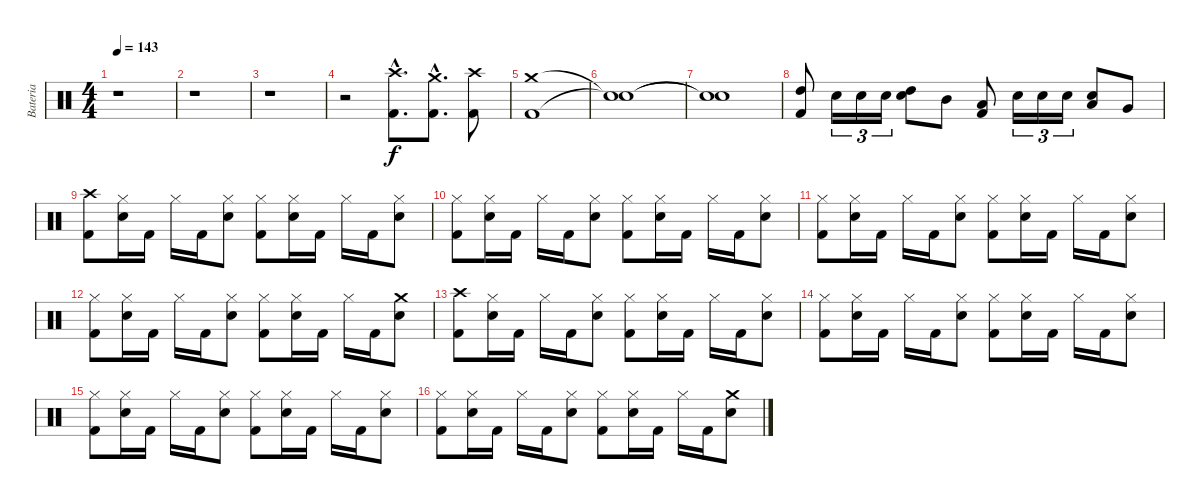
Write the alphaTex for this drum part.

\track ("Bateria" "Bateria") {instrument percussion}
\staff {score}
\articulation defaults
\ts (4 4)
\tempo 143
\clef neutral
\ks c
r.1{dy f} |
r.1 |
r.1 |
r.2 ("Crash high (hit)"{hac} "Kick (hit) 2"{hac}).8{d} ("Crash medium (hit)"{hac} "Kick (hit) 2"{hac}).8{d} ("Crash high (hit)" "Kick (hit) 2").8 |
("Crash medium (hit)" "Kick (hit) 2").1 |
("Snare (hit)"{t} "Snare (hit)"{t}).1 |
("Snare (hit)"{t} "Snare (hit)"{t}).1 |
("High Tom (hit)" "Kick (hit) 2").8 "Snare (hit) 2".16{tu (3 2)} "Snare (hit) 2".16{tu (3 2)} "Snare (hit) 2".16{tu (3 2)} ("Snare (hit) 2" "High Tom (hit)").8 "Mid Tom (hit)".8 ("Low Tom (hit)" "Kick (hit) 2").8 "Snare (hit) 2".16{tu (3 2)} "Snare (hit) 2".16{tu (3 2)} "Snare (hit) 2".16{tu (3 2)} ("Snare (hit) 2" "Low Tom (hit)").8 "Very Low Tom (hit)".8 |
("Crash high (hit)" "Kick (hit) 2").8 ("Hi-Hat (closed)" "Snare (hit) 2").16 "Kick (hit) 2".16 "Hi-Hat (closed)".16 "Kick (hit) 2".16 ("Hi-Hat (closed)" "Snare (hit) 2").8 ("Hi-Hat (closed)" "Kick (hit) 2").8 ("Hi-Hat (closed)" "Snare (hit) 2").16 "Kick (hit) 2".16 "Hi-Hat (closed)".16 "Kick (hit) 2".16 ("Hi-Hat (closed)" "Snare (hit) 2").8 |
("Hi-Hat (closed)" "Kick (hit) 2").8 ("Hi-Hat (closed)" "Snare (hit) 2").16 "Kick (hit) 2".16 "Hi-Hat (closed)".16 "Kick (hit) 2".16 ("Hi-Hat (closed)" "Snare (hit) 2").8 ("Hi-Hat (closed)" "Kick (hit) 2").8 ("Hi-Hat (closed)" "Snare (hit) 2").16 "Kick (hit) 2".16 "Hi-Hat (closed)".16 "Kick (hit) 2".16 ("Hi-Hat (closed)" "Snare (hit) 2").8 |
("Hi-Hat (closed)" "Kick (hit) 2").8 ("Hi-Hat (closed)" "Snare (hit) 2").16 "Kick (hit) 2".16 "Hi-Hat (closed)".16 "Kick (hit) 2".16 ("Hi-Hat (closed)" "Snare (hit) 2").8 ("Hi-Hat (closed)" "Kick (hit) 2").8 ("Hi-Hat (closed)" "Snare (hit) 2").16 "Kick (hit) 2".16 "Hi-Hat (closed)".16 "Kick (hit) 2".16 ("Hi-Hat (closed)" "Snare (hit) 2").8 |
("Hi-Hat (closed)" "Kick (hit) 2").8 ("Hi-Hat (closed)" "Snare (hit) 2").16 "Kick (hit) 2".16 "Hi-Hat (closed)".16 "Kick (hit) 2".16 ("Hi-Hat (closed)" "Snare (hit) 2").8 ("Hi-Hat (closed)" "Kick (hit) 2").8 ("Hi-Hat (closed)" "Snare (hit) 2").16 "Kick (hit) 2".16 "Hi-Hat (closed)".16 "Kick (hit) 2".16 ("Crash medium (hit)" "Snare (hit) 2").8 |
("Crash high (hit)" "Kick (hit) 2").8 ("Hi-Hat (closed)" "Snare (hit) 2").16 "Kick (hit) 2".16 "Hi-Hat (closed)".16 "Kick (hit) 2".16 ("Hi-Hat (closed)" "Snare (hit) 2").8 ("Hi-Hat (closed)" "Kick (hit) 2").8 ("Hi-Hat (closed)" "Snare (hit) 2").16 "Kick (hit) 2".16 "Hi-Hat (closed)".16 "Kick (hit) 2".16 ("Hi-Hat (closed)" "Snare (hit) 2").8 |
("Hi-Hat (closed)" "Kick (hit) 2").8 ("Hi-Hat (closed)" "Snare (hit) 2").16 "Kick (hit) 2".16 "Hi-Hat (closed)".16 "Kick (hit) 2".16 ("Hi-Hat (closed)" "Snare (hit) 2").8 ("Hi-Hat (closed)" "Kick (hit) 2").8 ("Hi-Hat (closed)" "Snare (hit) 2").16 "Kick (hit) 2".16 "Hi-Hat (closed)".16 "Kick (hit) 2".16 ("Hi-Hat (closed)" "Snare (hit) 2").8 |
("Hi-Hat (closed)" "Kick (hit) 2").8 ("Hi-Hat (closed)" "Snare (hit) 2").16 "Kick (hit) 2".16 "Hi-Hat (closed)".16 "Kick (hit) 2".16 ("Hi-Hat (closed)" "Snare (hit) 2").8 ("Hi-Hat (closed)" "Kick (hit) 2").8 ("Hi-Hat (closed)" "Snare (hit) 2").16 "Kick (hit) 2".16 "Hi-Hat (closed)".16 "Kick (hit) 2".16 ("Hi-Hat (closed)" "Snare (hit) 2").8 |
("Hi-Hat (closed)" "Kick (hit) 2").8 ("Hi-Hat (closed)" "Snare (hit) 2").16 "Kick (hit) 2".16 "Hi-Hat (closed)".16 "Kick (hit) 2".16 ("Hi-Hat (closed)" "Snare (hit) 2").8 ("Hi-Hat (closed)" "Kick (hit) 2").8 ("Hi-Hat (closed)" "Snare (hit) 2").16 "Kick (hit) 2".16 "Hi-Hat (closed)".16 "Kick (hit) 2".16 ("Crash medium (hit)" "Snare (hit) 2").8
